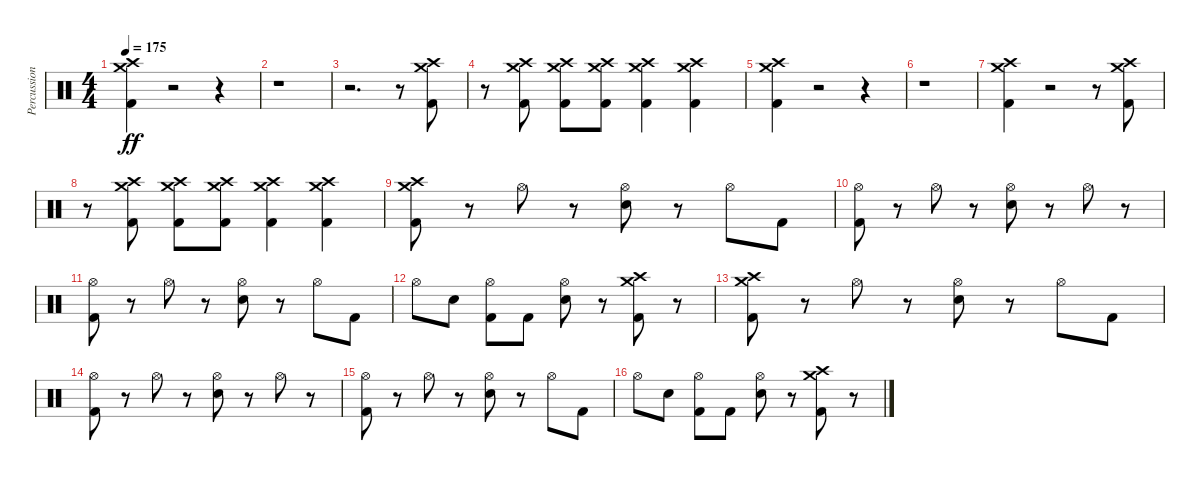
\track ("Percussion" "Percussion") {instrument percussion}
\staff {score}
\articulation defaults
\ts (4 4)
\tempo 175
\clef neutral
\ks c
("Kick (hit) 2" "Crash medium (hit)" "Crash high (hit)").4{dy ff} r.2 r.4 |
r.1 |
r.2{d} r.8 ("Kick (hit) 2" "Crash medium (hit)" "Crash high (hit)").8 |
r.8 ("Kick (hit) 2" "Crash medium (hit)" "Crash high (hit)").8 ("Kick (hit) 2" "Crash medium (hit)" "Crash high (hit)").8 ("Kick (hit) 2" "Crash medium (hit)" "Crash high (hit)").8 ("Kick (hit) 2" "Crash medium (hit)" "Crash high (hit)").4 ("Kick (hit) 2" "Crash medium (hit)" "Crash high (hit)").4 |
("Kick (hit) 2" "Crash medium (hit)" "Crash high (hit)").4 r.2 r.4 |
r.1 |
("Kick (hit) 2" "Crash medium (hit)" "Crash high (hit)").4 r.2 r.8 ("Kick (hit) 2" "Crash medium (hit)" "Crash high (hit)").8 |
r.8 ("Kick (hit) 2" "Crash medium (hit)" "Crash high (hit)").8 ("Kick (hit) 2" "Crash medium (hit)" "Crash high (hit)").8 ("Kick (hit) 2" "Crash medium (hit)" "Crash high (hit)").8 ("Kick (hit) 2" "Crash medium (hit)" "Crash high (hit)").4 ("Kick (hit) 2" "Crash medium (hit)" "Crash high (hit)").4 |
("Kick (hit) 2" "Crash medium (hit)" "Crash high (hit)").8 r.8 "Hi-Hat (open)".8 r.8 ("Electric Snare (hit)" "Hi-Hat (open)").8 r.8 "Hi-Hat (open)".8 "Kick (hit) 2".8 |
("Kick (hit) 2" "Hi-Hat (open)").8 r.8 "Hi-Hat (open)".8 r.8 ("Electric Snare (hit)" "Hi-Hat (open)").8 r.8 "Hi-Hat (open)".8 r.8 |
("Kick (hit) 2" "Hi-Hat (open)").8 r.8 "Hi-Hat (open)".8 r.8 ("Electric Snare (hit)" "Hi-Hat (open)").8 r.8 "Hi-Hat (open)".8 "Kick (hit) 2".8 |
"Hi-Hat (open)".8 "Electric Snare (hit)".8 ("Kick (hit) 2" "Hi-Hat (open)").8 "Kick (hit) 2".8 ("Electric Snare (hit)" "Hi-Hat (open)").8 r.8 ("Kick (hit) 2" "Crash medium (hit)" "Crash high (hit)").8 r.8 |
("Kick (hit) 2" "Crash medium (hit)" "Crash high (hit)").8 r.8 "Hi-Hat (open)".8 r.8 ("Electric Snare (hit)" "Hi-Hat (open)").8 r.8 "Hi-Hat (open)".8 "Kick (hit) 2".8 |
("Kick (hit) 2" "Hi-Hat (open)").8 r.8 "Hi-Hat (open)".8 r.8 ("Electric Snare (hit)" "Hi-Hat (open)").8 r.8 "Hi-Hat (open)".8 r.8 |
("Kick (hit) 2" "Hi-Hat (open)").8 r.8 "Hi-Hat (open)".8 r.8 ("Electric Snare (hit)" "Hi-Hat (open)").8 r.8 "Hi-Hat (open)".8 "Kick (hit) 2".8 |
"Hi-Hat (open)".8 "Electric Snare (hit)".8 ("Kick (hit) 2" "Hi-Hat (open)").8 "Kick (hit) 2".8 ("Electric Snare (hit)" "Hi-Hat (open)").8 r.8 ("Kick (hit) 2" "Crash medium (hit)" "Crash high (hit)").8 r.8
